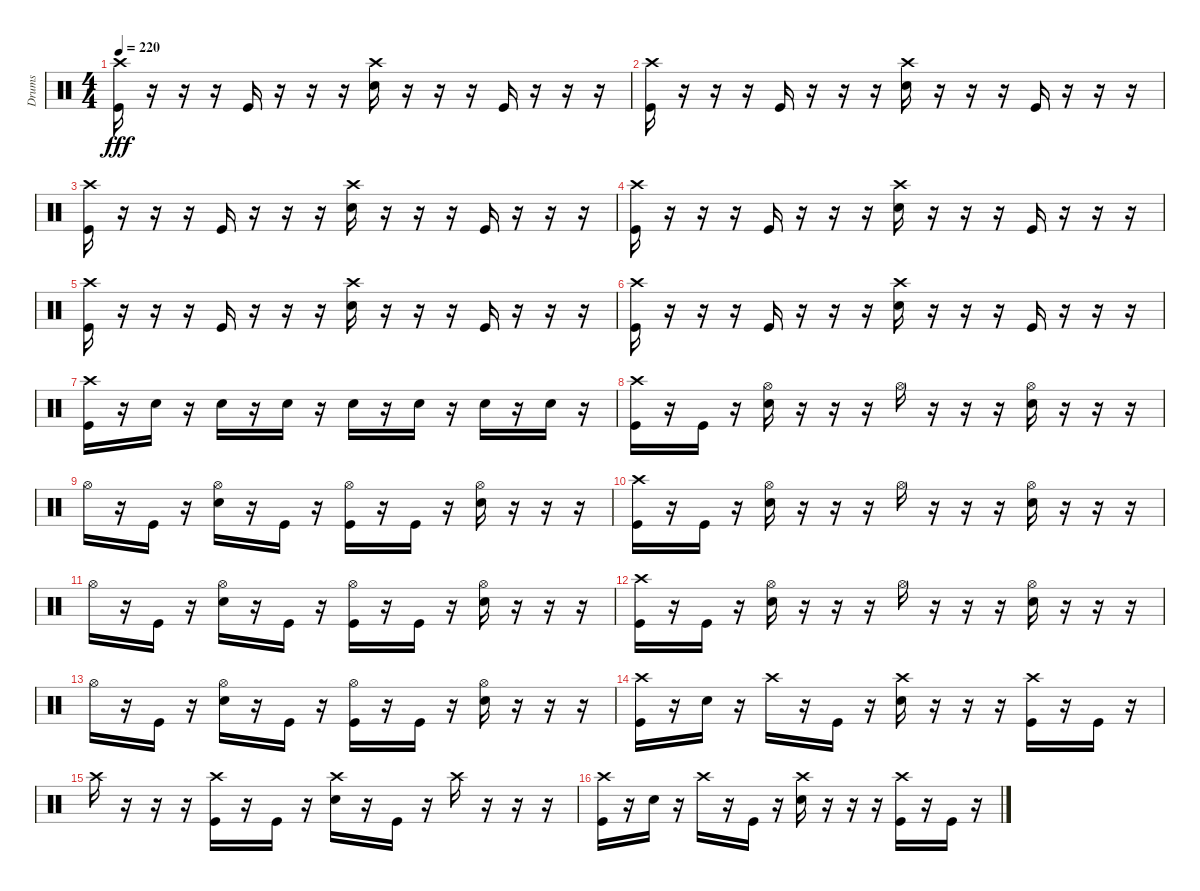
\track ("Drums" "Drums") {instrument percussion}
\staff {score}
\articulation defaults
\ts (4 4)
\tempo 220
\clef neutral
\ks c
("Crash high (hit)" "Kick (hit)").16{dy fff} r.16 r.16 r.16 "Kick (hit)".16 r.16 r.16 r.16 ("Crash high (hit)" "Electric Snare (hit)").16 r.16 r.16 r.16 "Kick (hit)".16 r.16 r.16 r.16 |
("Crash high (hit)" "Kick (hit)").16 r.16 r.16 r.16 "Kick (hit)".16 r.16 r.16 r.16 ("Crash high (hit)" "Electric Snare (hit)").16 r.16 r.16 r.16 "Kick (hit)".16 r.16 r.16 r.16 |
("Crash high (hit)" "Kick (hit)").16 r.16 r.16 r.16 "Kick (hit)".16 r.16 r.16 r.16 ("Crash high (hit)" "Electric Snare (hit)").16 r.16 r.16 r.16 "Kick (hit)".16 r.16 r.16 r.16 |
("Crash high (hit)" "Kick (hit)").16 r.16 r.16 r.16 "Kick (hit)".16 r.16 r.16 r.16 ("Crash high (hit)" "Electric Snare (hit)").16 r.16 r.16 r.16 "Kick (hit)".16 r.16 r.16 r.16 |
("Crash high (hit)" "Kick (hit)").16 r.16 r.16 r.16 "Kick (hit)".16 r.16 r.16 r.16 ("Crash high (hit)" "Electric Snare (hit)").16 r.16 r.16 r.16 "Kick (hit)".16 r.16 r.16 r.16 |
("Crash high (hit)" "Kick (hit)").16 r.16 r.16 r.16 "Kick (hit)".16 r.16 r.16 r.16 ("Crash high (hit)" "Electric Snare (hit)").16 r.16 r.16 r.16 "Kick (hit)".16 r.16 r.16 r.16 |
("Crash high (hit)" "Kick (hit)").16 r.16 "Electric Snare (hit)".16 r.16 "Electric Snare (hit)".16 r.16 "Electric Snare (hit)".16 r.16 "Electric Snare (hit)".16 r.16 "Electric Snare (hit)".16 r.16 "Electric Snare (hit)".16 r.16 "Electric Snare (hit)".16 r.16 |
("Crash high (hit)" "Kick (hit)").16 r.16 "Kick (hit)".16 r.16 ("Hi-Hat (open)" "Electric Snare (hit)").16 r.16 r.16 r.16 "Hi-Hat (open)".16 r.16 r.16 r.16 ("Hi-Hat (open)" "Electric Snare (hit)").16 r.16 r.16 r.16 |
"Hi-Hat (open)".16 r.16 "Kick (hit)".16 r.16 ("Hi-Hat (open)" "Electric Snare (hit)").16 r.16 "Kick (hit)".16 r.16 ("Hi-Hat (open)" "Kick (hit)").16 r.16 "Kick (hit)".16 r.16 ("Hi-Hat (open)" "Electric Snare (hit)").16 r.16 r.16 r.16 |
("Crash high (hit)" "Kick (hit)").16 r.16 "Kick (hit)".16 r.16 ("Hi-Hat (open)" "Electric Snare (hit)").16 r.16 r.16 r.16 "Hi-Hat (open)".16 r.16 r.16 r.16 ("Hi-Hat (open)" "Electric Snare (hit)").16 r.16 r.16 r.16 |
"Hi-Hat (open)".16 r.16 "Kick (hit)".16 r.16 ("Hi-Hat (open)" "Electric Snare (hit)").16 r.16 "Kick (hit)".16 r.16 ("Hi-Hat (open)" "Kick (hit)").16 r.16 "Kick (hit)".16 r.16 ("Hi-Hat (open)" "Electric Snare (hit)").16 r.16 r.16 r.16 |
("Crash high (hit)" "Kick (hit)").16 r.16 "Kick (hit)".16 r.16 ("Hi-Hat (open)" "Electric Snare (hit)").16 r.16 r.16 r.16 "Hi-Hat (open)".16 r.16 r.16 r.16 ("Hi-Hat (open)" "Electric Snare (hit)").16 r.16 r.16 r.16 |
"Hi-Hat (open)".16 r.16 "Kick (hit)".16 r.16 ("Hi-Hat (open)" "Electric Snare (hit)").16 r.16 "Kick (hit)".16 r.16 ("Hi-Hat (open)" "Kick (hit)").16 r.16 "Kick (hit)".16 r.16 ("Hi-Hat (open)" "Electric Snare (hit)").16 r.16 r.16 r.16 |
("Crash high (hit)" "Kick (hit)").16 r.16 "Electric Snare (hit)".16 r.16 "Crash high (hit)".16 r.16 "Kick (hit)".16 r.16 ("Crash high (hit)" "Electric Snare (hit)").16 r.16 r.16 r.16 ("Crash high (hit)" "Kick (hit)").16 r.16 "Kick (hit)".16 r.16 |
"Crash high (hit)".16 r.16 r.16 r.16 ("Crash high (hit)" "Kick (hit)").16 r.16 "Kick (hit)".16 r.16 ("Crash high (hit)" "Electric Snare (hit)").16 r.16 "Kick (hit)".16 r.16 "Crash high (hit)".16 r.16 r.16 r.16 |
("Crash high (hit)" "Kick (hit)").16 r.16 "Electric Snare (hit)".16 r.16 "Crash high (hit)".16 r.16 "Kick (hit)".16 r.16 ("Crash high (hit)" "Electric Snare (hit)").16 r.16 r.16 r.16 ("Crash high (hit)" "Kick (hit)").16 r.16 "Kick (hit)".16 r.16
